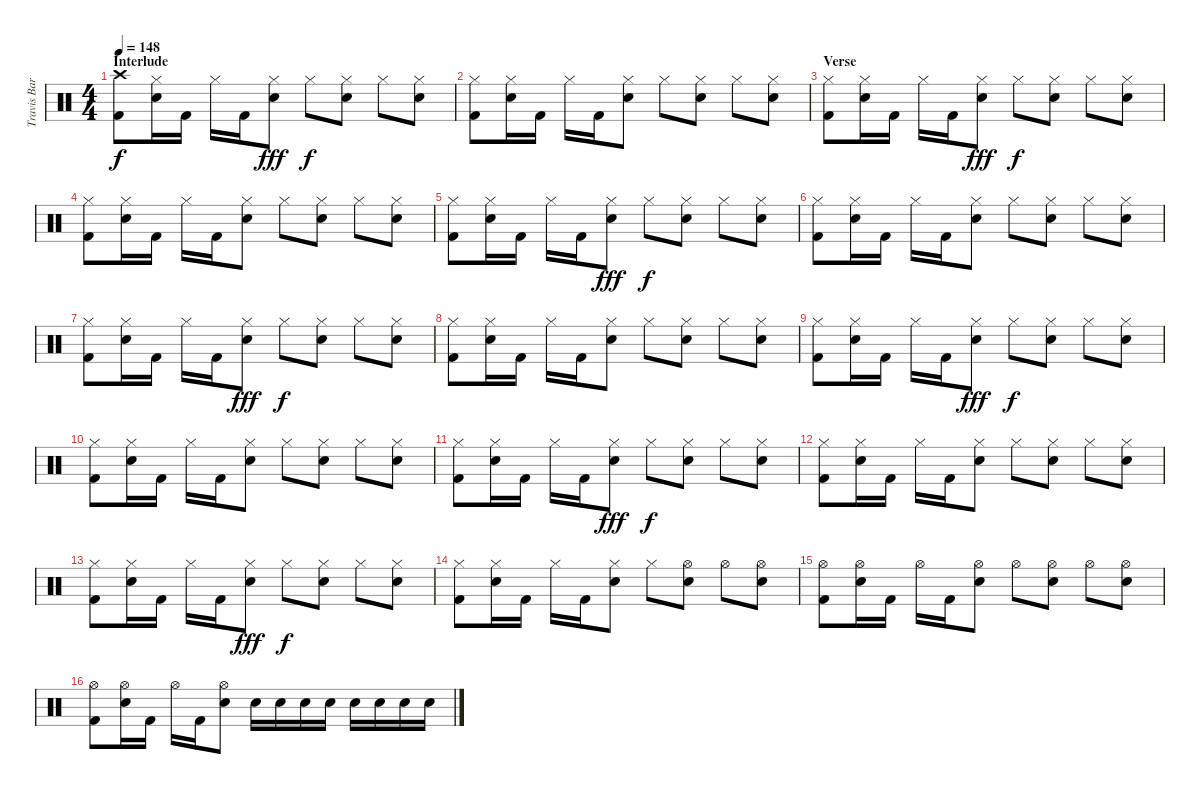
\track ("Travis Barker - Drums" "Travis Bar") {instrument percussion}
\staff {score}
\articulation defaults
\ts (4 4)
\section ("" "Interlude")
\tempo 148
\clef neutral
\ks c
("Crash high (hit)" "Kick (hit) 2").8{dy f} ("Hi-Hat (closed)" "Electric Snare (hit)").16 "Kick (hit) 2".16 "Hi-Hat (closed)".16 "Kick (hit) 2".16 ("Hi-Hat (closed)" "Electric Snare (hit)").8{dy fff} "Hi-Hat (closed)".8{dy f} ("Hi-Hat (closed)" "Electric Snare (hit)").8 "Hi-Hat (closed)".8 ("Hi-Hat (closed)" "Electric Snare (hit)").8 |
("Hi-Hat (closed)" "Kick (hit) 2").8 ("Hi-Hat (closed)" "Electric Snare (hit)").16 "Kick (hit) 2".16 "Hi-Hat (closed)".16 "Kick (hit) 2".16 ("Hi-Hat (closed)" "Electric Snare (hit)").8 "Hi-Hat (closed)".8 ("Hi-Hat (closed)" "Electric Snare (hit)").8 "Hi-Hat (closed)".8 ("Hi-Hat (closed)" "Electric Snare (hit)").8 |
\section ("" "Verse")
("Hi-Hat (closed)" "Kick (hit) 2").8 ("Hi-Hat (closed)" "Electric Snare (hit)").16 "Kick (hit) 2".16 "Hi-Hat (closed)".16 "Kick (hit) 2".16 ("Hi-Hat (closed)" "Electric Snare (hit)").8{dy fff} "Hi-Hat (closed)".8{dy f} ("Hi-Hat (closed)" "Electric Snare (hit)").8 "Hi-Hat (closed)".8 ("Hi-Hat (closed)" "Electric Snare (hit)").8 |
("Hi-Hat (closed)" "Kick (hit) 2").8 ("Hi-Hat (closed)" "Electric Snare (hit)").16 "Kick (hit) 2".16 "Hi-Hat (closed)".16 "Kick (hit) 2".16 ("Hi-Hat (closed)" "Electric Snare (hit)").8 "Hi-Hat (closed)".8 ("Hi-Hat (closed)" "Electric Snare (hit)").8 "Hi-Hat (closed)".8 ("Hi-Hat (closed)" "Electric Snare (hit)").8 |
("Hi-Hat (closed)" "Kick (hit) 2").8 ("Hi-Hat (closed)" "Electric Snare (hit)").16 "Kick (hit) 2".16 "Hi-Hat (closed)".16 "Kick (hit) 2".16 ("Hi-Hat (closed)" "Electric Snare (hit)").8{dy fff} "Hi-Hat (closed)".8{dy f} ("Hi-Hat (closed)" "Electric Snare (hit)").8 "Hi-Hat (closed)".8 ("Hi-Hat (closed)" "Electric Snare (hit)").8 |
("Hi-Hat (closed)" "Kick (hit) 2").8 ("Hi-Hat (closed)" "Electric Snare (hit)").16 "Kick (hit) 2".16 "Hi-Hat (closed)".16 "Kick (hit) 2".16 ("Hi-Hat (closed)" "Electric Snare (hit)").8 "Hi-Hat (closed)".8 ("Hi-Hat (closed)" "Electric Snare (hit)").8 "Hi-Hat (closed)".8 ("Hi-Hat (closed)" "Electric Snare (hit)").8 |
("Hi-Hat (closed)" "Kick (hit) 2").8 ("Hi-Hat (closed)" "Electric Snare (hit)").16 "Kick (hit) 2".16 "Hi-Hat (closed)".16 "Kick (hit) 2".16 ("Hi-Hat (closed)" "Electric Snare (hit)").8{dy fff} "Hi-Hat (closed)".8{dy f} ("Hi-Hat (closed)" "Electric Snare (hit)").8 "Hi-Hat (closed)".8 ("Hi-Hat (closed)" "Electric Snare (hit)").8 |
("Hi-Hat (closed)" "Kick (hit) 2").8 ("Hi-Hat (closed)" "Electric Snare (hit)").16 "Kick (hit) 2".16 "Hi-Hat (closed)".16 "Kick (hit) 2".16 ("Hi-Hat (closed)" "Electric Snare (hit)").8 "Hi-Hat (closed)".8 ("Hi-Hat (closed)" "Electric Snare (hit)").8 "Hi-Hat (closed)".8 ("Hi-Hat (closed)" "Electric Snare (hit)").8 |
("Hi-Hat (closed)" "Kick (hit) 2").8 ("Hi-Hat (closed)" "Electric Snare (hit)").16 "Kick (hit) 2".16 "Hi-Hat (closed)".16 "Kick (hit) 2".16 ("Hi-Hat (closed)" "Electric Snare (hit)").8{dy fff} "Hi-Hat (closed)".8{dy f} ("Hi-Hat (closed)" "Electric Snare (hit)").8 "Hi-Hat (closed)".8 ("Hi-Hat (closed)" "Electric Snare (hit)").8 |
("Hi-Hat (closed)" "Kick (hit) 2").8 ("Hi-Hat (closed)" "Electric Snare (hit)").16 "Kick (hit) 2".16 "Hi-Hat (closed)".16 "Kick (hit) 2".16 ("Hi-Hat (closed)" "Electric Snare (hit)").8 "Hi-Hat (closed)".8 ("Hi-Hat (closed)" "Electric Snare (hit)").8 "Hi-Hat (closed)".8 ("Hi-Hat (closed)" "Electric Snare (hit)").8 |
("Hi-Hat (closed)" "Kick (hit) 2").8 ("Hi-Hat (closed)" "Electric Snare (hit)").16 "Kick (hit) 2".16 "Hi-Hat (closed)".16 "Kick (hit) 2".16 ("Hi-Hat (closed)" "Electric Snare (hit)").8{dy fff} "Hi-Hat (closed)".8{dy f} ("Hi-Hat (closed)" "Electric Snare (hit)").8 "Hi-Hat (closed)".8 ("Hi-Hat (closed)" "Electric Snare (hit)").8 |
("Hi-Hat (closed)" "Kick (hit) 2").8 ("Hi-Hat (closed)" "Electric Snare (hit)").16 "Kick (hit) 2".16 "Hi-Hat (closed)".16 "Kick (hit) 2".16 ("Hi-Hat (closed)" "Electric Snare (hit)").8 "Hi-Hat (closed)".8 ("Hi-Hat (closed)" "Electric Snare (hit)").8 "Hi-Hat (closed)".8 ("Hi-Hat (closed)" "Electric Snare (hit)").8 |
("Hi-Hat (closed)" "Kick (hit) 2").8 ("Hi-Hat (closed)" "Electric Snare (hit)").16 "Kick (hit) 2".16 "Hi-Hat (closed)".16 "Kick (hit) 2".16 ("Hi-Hat (closed)" "Electric Snare (hit)").8{dy fff} "Hi-Hat (closed)".8{dy f} ("Hi-Hat (closed)" "Electric Snare (hit)").8 "Hi-Hat (closed)".8 ("Hi-Hat (closed)" "Electric Snare (hit)").8 |
("Hi-Hat (closed)" "Kick (hit) 2").8 ("Hi-Hat (closed)" "Electric Snare (hit)").16 "Kick (hit) 2".16 "Hi-Hat (closed)".16 "Kick (hit) 2".16 ("Hi-Hat (closed)" "Electric Snare (hit)").8 "Hi-Hat (closed)".8 ("Hi-Hat (open)" "Electric Snare (hit)").8 "Hi-Hat (open)".8 ("Hi-Hat (open)" "Electric Snare (hit)").8 |
("Hi-Hat (open)" "Kick (hit) 2").8 ("Hi-Hat (open)" "Electric Snare (hit)").16 "Kick (hit) 2".16 "Hi-Hat (open)".16 "Kick (hit) 2".16 ("Hi-Hat (open)" "Electric Snare (hit)").8 "Hi-Hat (open)".8 ("Hi-Hat (open)" "Electric Snare (hit)").8 "Hi-Hat (open)".8 ("Hi-Hat (open)" "Electric Snare (hit)").8 |
("Hi-Hat (open)" "Kick (hit) 2").8 ("Hi-Hat (open)" "Electric Snare (hit)").16 "Kick (hit) 2".16 "Hi-Hat (open)".16 "Kick (hit) 2".16 ("Hi-Hat (open)" "Electric Snare (hit)").8 "Electric Snare (hit)".16 "Electric Snare (hit)".16 "Electric Snare (hit)".16 "Electric Snare (hit)".16 "Electric Snare (hit)".16 "Electric Snare (hit)".16 "Electric Snare (hit)".16 "Electric Snare (hit)".16
